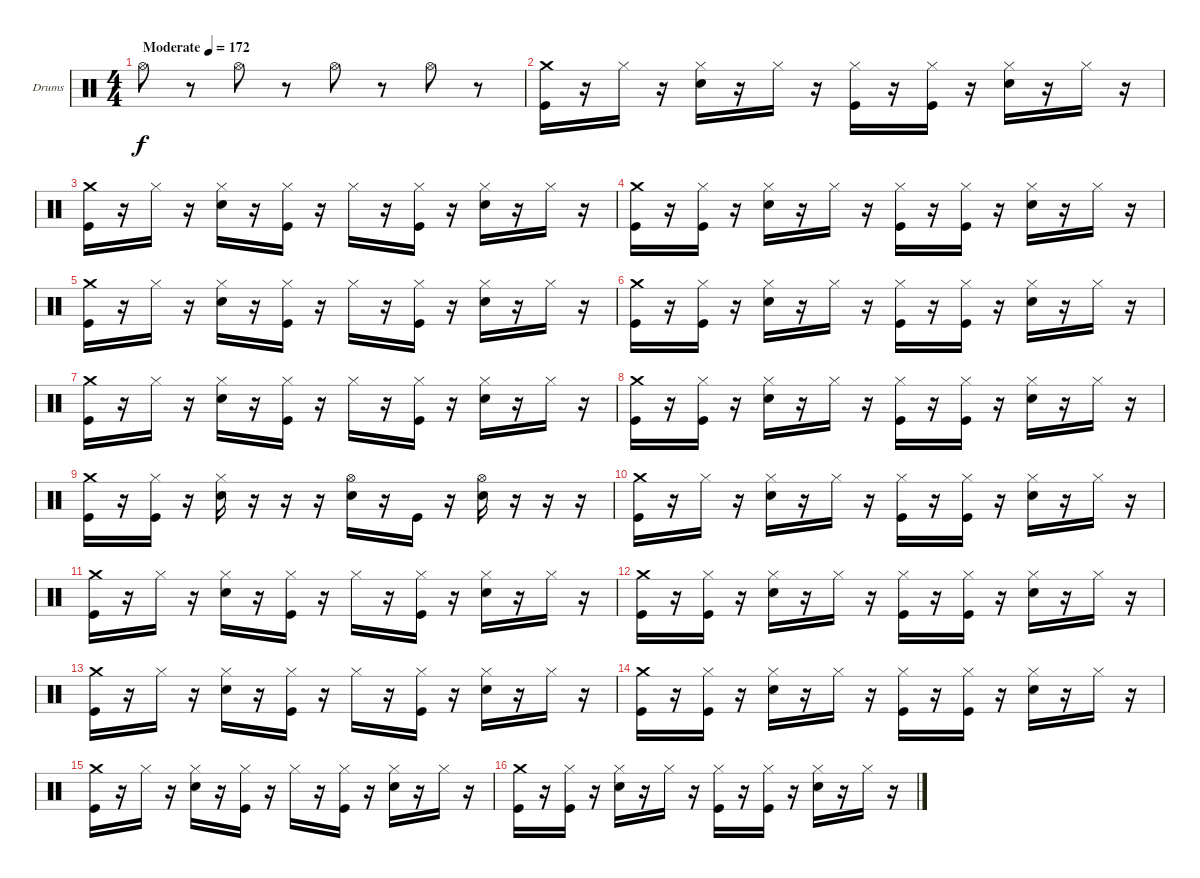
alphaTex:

\bracketExtendMode groupsimilarinstruments
\firstSystemTrackNameOrientation horizontal
\otherSystemsTrackNameOrientation horizontal
\track ("Drumkit" "Drums") {instrument percussion}
\staff {score}
\articulation defaults
\ts (4 4)
\beaming (8 2 2 2 2)
\tempo (172 "Moderate")
\clef neutral
\ks c "Hi-Hat (open)".8{dy f}
r.8 "Hi-Hat (open)".8 r.8 "Hi-Hat (open)".8 r.8 "Hi-Hat (open)".8 r.8 |
("Kick (hit)" "Crash medium (hit)").16 r.16 "Hi-Hat (closed)".16 r.16 ("Snare (hit) 2" "Hi-Hat (closed)").16 r.16 "Hi-Hat (closed)".16 r.16 ("Kick (hit)" "Hi-Hat (closed)").16 r.16 ("Kick (hit)" "Hi-Hat (closed)").16 r.16 ("Snare (hit) 2" "Hi-Hat (closed)").16 r.16 "Hi-Hat (closed)".16 r.16 |
("Kick (hit)" "Crash medium (hit)").16 r.16 "Hi-Hat (closed)".16 r.16 ("Snare (hit) 2" "Hi-Hat (closed)").16 r.16 ("Kick (hit)" "Hi-Hat (closed)").16 r.16 "Hi-Hat (closed)".16 r.16 ("Kick (hit)" "Hi-Hat (closed)").16 r.16 ("Snare (hit) 2" "Hi-Hat (closed)").16 r.16 "Hi-Hat (closed)".16 r.16 |
("Kick (hit)" "Crash medium (hit)").16 r.16 ("Kick (hit)" "Hi-Hat (closed)").16 r.16 ("Snare (hit) 2" "Hi-Hat (closed)").16 r.16 "Hi-Hat (closed)".16 r.16 ("Kick (hit)" "Hi-Hat (closed)").16 r.16 ("Kick (hit)" "Hi-Hat (closed)").16 r.16 ("Snare (hit) 2" "Hi-Hat (closed)").16 r.16 "Hi-Hat (closed)".16 r.16 |
("Kick (hit)" "Crash medium (hit)").16 r.16 "Hi-Hat (closed)".16 r.16 ("Snare (hit) 2" "Hi-Hat (closed)").16 r.16 ("Kick (hit)" "Hi-Hat (closed)").16 r.16 "Hi-Hat (closed)".16 r.16 ("Kick (hit)" "Hi-Hat (closed)").16 r.16 ("Snare (hit) 2" "Hi-Hat (closed)").16 r.16 "Hi-Hat (closed)".16 r.16 |
("Kick (hit)" "Crash medium (hit)").16 r.16 ("Kick (hit)" "Hi-Hat (closed)").16 r.16 ("Snare (hit) 2" "Hi-Hat (closed)").16 r.16 "Hi-Hat (closed)".16 r.16 ("Kick (hit)" "Hi-Hat (closed)").16 r.16 ("Kick (hit)" "Hi-Hat (closed)").16 r.16 ("Snare (hit) 2" "Hi-Hat (closed)").16 r.16 "Hi-Hat (closed)".16 r.16 |
("Kick (hit)" "Crash medium (hit)").16 r.16 "Hi-Hat (closed)".16 r.16 ("Snare (hit) 2" "Hi-Hat (closed)").16 r.16 ("Kick (hit)" "Hi-Hat (closed)").16 r.16 "Hi-Hat (closed)".16 r.16 ("Kick (hit)" "Hi-Hat (closed)").16 r.16 ("Snare (hit) 2" "Hi-Hat (closed)").16 r.16 "Hi-Hat (closed)".16 r.16 |
("Kick (hit)" "Crash medium (hit)").16 r.16 ("Kick (hit)" "Hi-Hat (closed)").16 r.16 ("Snare (hit) 2" "Hi-Hat (closed)").16 r.16 "Hi-Hat (closed)".16 r.16 ("Kick (hit)" "Hi-Hat (closed)").16 r.16 ("Kick (hit)" "Hi-Hat (closed)").16 r.16 ("Snare (hit) 2" "Hi-Hat (closed)").16 r.16 "Hi-Hat (closed)".16 r.16 |
("Kick (hit)" "Crash medium (hit)").16 r.16 ("Kick (hit)" "Hi-Hat (closed)").16 r.16 ("Snare (hit) 2" "Hi-Hat (closed)").16 r.16 r.16 r.16 ("Snare (hit) 2" "Hi-Hat (open)").16 r.16 "Kick (hit)".16 r.16 ("Snare (hit) 2" "Hi-Hat (open)").16 r.16 r.16 r.16 |
("Kick (hit)" "Crash medium (hit)").16 r.16 "Hi-Hat (closed)".16 r.16 ("Snare (hit) 2" "Hi-Hat (closed)").16 r.16 "Hi-Hat (closed)".16 r.16 ("Kick (hit)" "Hi-Hat (closed)").16 r.16 ("Kick (hit)" "Hi-Hat (closed)").16 r.16 ("Snare (hit) 2" "Hi-Hat (closed)").16 r.16 "Hi-Hat (closed)".16 r.16 |
("Kick (hit)" "Crash medium (hit)").16 r.16 "Hi-Hat (closed)".16 r.16 ("Snare (hit) 2" "Hi-Hat (closed)").16 r.16 ("Kick (hit)" "Hi-Hat (closed)").16 r.16 "Hi-Hat (closed)".16 r.16 ("Kick (hit)" "Hi-Hat (closed)").16 r.16 ("Snare (hit) 2" "Hi-Hat (closed)").16 r.16 "Hi-Hat (closed)".16 r.16 |
("Kick (hit)" "Crash medium (hit)").16 r.16 ("Kick (hit)" "Hi-Hat (closed)").16 r.16 ("Snare (hit) 2" "Hi-Hat (closed)").16 r.16 "Hi-Hat (closed)".16 r.16 ("Kick (hit)" "Hi-Hat (closed)").16 r.16 ("Kick (hit)" "Hi-Hat (closed)").16 r.16 ("Snare (hit) 2" "Hi-Hat (closed)").16 r.16 "Hi-Hat (closed)".16 r.16 |
("Kick (hit)" "Crash medium (hit)").16 r.16 "Hi-Hat (closed)".16 r.16 ("Snare (hit) 2" "Hi-Hat (closed)").16 r.16 ("Kick (hit)" "Hi-Hat (closed)").16 r.16 "Hi-Hat (closed)".16 r.16 ("Kick (hit)" "Hi-Hat (closed)").16 r.16 ("Snare (hit) 2" "Hi-Hat (closed)").16 r.16 "Hi-Hat (closed)".16 r.16 |
("Kick (hit)" "Crash medium (hit)").16 r.16 ("Kick (hit)" "Hi-Hat (closed)").16 r.16 ("Snare (hit) 2" "Hi-Hat (closed)").16 r.16 "Hi-Hat (closed)".16 r.16 ("Kick (hit)" "Hi-Hat (closed)").16 r.16 ("Kick (hit)" "Hi-Hat (closed)").16 r.16 ("Snare (hit) 2" "Hi-Hat (closed)").16 r.16 "Hi-Hat (closed)".16 r.16 |
("Kick (hit)" "Crash medium (hit)").16 r.16 "Hi-Hat (closed)".16 r.16 ("Snare (hit) 2" "Hi-Hat (closed)").16 r.16 ("Kick (hit)" "Hi-Hat (closed)").16 r.16 "Hi-Hat (closed)".16 r.16 ("Kick (hit)" "Hi-Hat (closed)").16 r.16 ("Snare (hit) 2" "Hi-Hat (closed)").16 r.16 "Hi-Hat (closed)".16 r.16 |
("Kick (hit)" "Crash medium (hit)").16 r.16 ("Kick (hit)" "Hi-Hat (closed)").16 r.16 ("Snare (hit) 2" "Hi-Hat (closed)").16 r.16 "Hi-Hat (closed)".16 r.16 ("Kick (hit)" "Hi-Hat (closed)").16 r.16 ("Kick (hit)" "Hi-Hat (closed)").16 r.16 ("Snare (hit) 2" "Hi-Hat (closed)").16 r.16 "Hi-Hat (closed)".16 r.16
